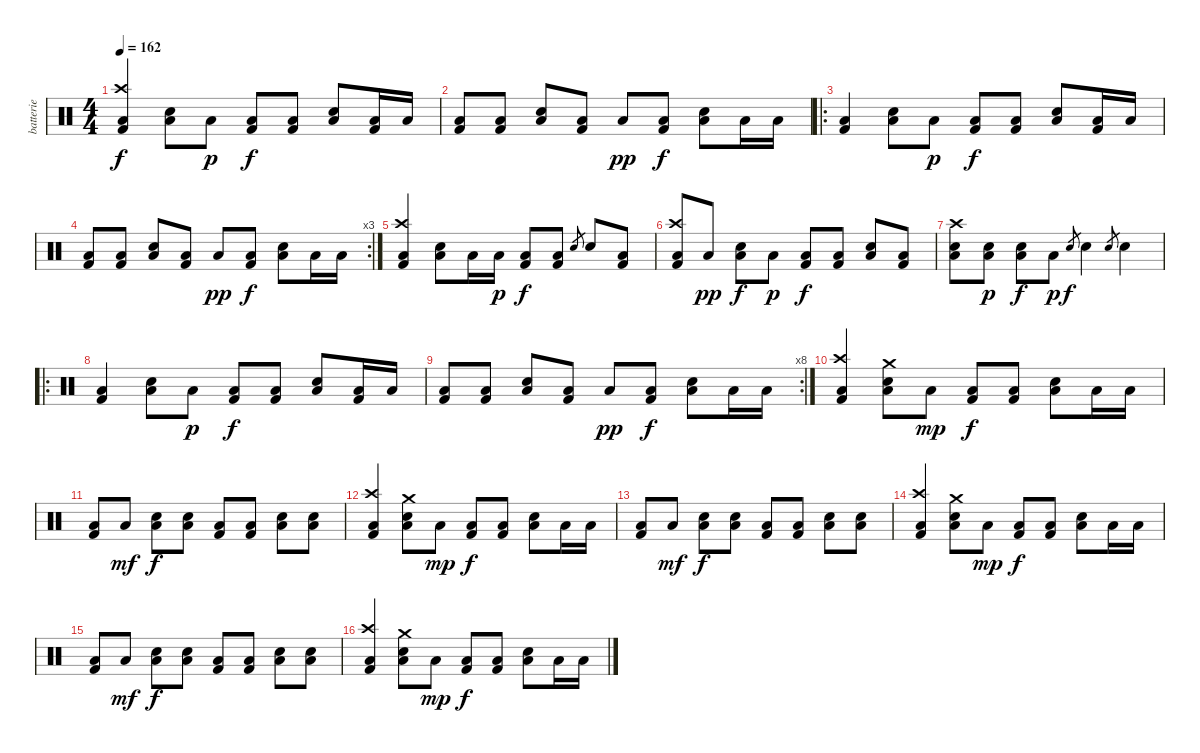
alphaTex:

\track ("batterie" "batterie") {instrument percussion}
\staff {score}
\articulation defaults
\ts (4 4)
\tempo 162
\clef neutral
\ks c
("Low Floor Tom (hit)" "Crash high (hit)" "Kick (hit) 2").4{dy f} ("Low Floor Tom (hit)" "Electric Snare (hit)").8 "Low Floor Tom (hit)".8{dy p} ("Low Floor Tom (hit)" "Kick (hit) 2").8{dy f} ("Low Floor Tom (hit)" "Kick (hit) 2").8 ("Low Floor Tom (hit)" "Electric Snare (hit)").8 ("Low Floor Tom (hit)" "Kick (hit) 2").16 "Low Floor Tom (hit)".16 |
("Low Floor Tom (hit)" "Kick (hit) 2").8 ("Low Floor Tom (hit)" "Kick (hit) 2").8 ("Low Floor Tom (hit)" "Electric Snare (hit)").8 ("Low Floor Tom (hit)" "Kick (hit) 2").8 "Low Floor Tom (hit)".8{dy pp} ("Low Floor Tom (hit)" "Kick (hit) 2").8{dy f} ("Low Floor Tom (hit)" "Electric Snare (hit)").8 "Low Floor Tom (hit)".16 "Low Floor Tom (hit)".16 |
\ro
("Low Floor Tom (hit)" "Kick (hit) 2").4 ("Low Floor Tom (hit)" "Electric Snare (hit)").8 "Low Floor Tom (hit)".8{dy p} ("Low Floor Tom (hit)" "Kick (hit) 2").8{dy f} ("Low Floor Tom (hit)" "Kick (hit) 2").8 ("Low Floor Tom (hit)" "Electric Snare (hit)").8 ("Low Floor Tom (hit)" "Kick (hit) 2").16 "Low Floor Tom (hit)".16 |
\rc 3
("Low Floor Tom (hit)" "Kick (hit) 2").8 ("Low Floor Tom (hit)" "Kick (hit) 2").8 ("Low Floor Tom (hit)" "Electric Snare (hit)").8 ("Low Floor Tom (hit)" "Kick (hit) 2").8 "Low Floor Tom (hit)".8{dy pp} ("Low Floor Tom (hit)" "Kick (hit) 2").8{dy f} ("Low Floor Tom (hit)" "Electric Snare (hit)").8 "Low Floor Tom (hit)".16 "Low Floor Tom (hit)".16 |
("Low Floor Tom (hit)" "Crash high (hit)" "Kick (hit) 2").4 ("Low Floor Tom (hit)" "Electric Snare (hit)").8 "Low Floor Tom (hit)".16 "Low Floor Tom (hit)".16{dy p} ("Low Floor Tom (hit)" "Kick (hit) 2").8{dy f} ("Low Floor Tom (hit)" "Kick (hit) 2").8 "Electric Snare (hit)".8{gr} "Electric Snare (hit)".8 ("Low Floor Tom (hit)" "Kick (hit) 2").8 |
("Low Floor Tom (hit)" "Crash high (hit)" "Kick (hit) 2").8 "Low Floor Tom (hit)".8{dy pp} ("Low Floor Tom (hit)" "Electric Snare (hit)").8{dy f} "Low Floor Tom (hit)".8{dy p} ("Low Floor Tom (hit)" "Kick (hit) 2").8{dy f} ("Low Floor Tom (hit)" "Kick (hit) 2").8 ("Low Floor Tom (hit)" "Electric Snare (hit)").8 ("Low Floor Tom (hit)" "Kick (hit) 2").8 |
("Low Floor Tom (hit)" "Crash high (hit)" "Electric Snare (hit)").8 ("Low Floor Tom (hit)" "Electric Snare (hit)").8{dy p} ("Low Floor Tom (hit)" "Electric Snare (hit)").8{dy f} "Low Floor Tom (hit)".8{dy p} "Electric Snare (hit)".8{gr dy f} "Electric Snare (hit)".4 "Electric Snare (hit)".8{gr} "Electric Snare (hit)".4 |
\ro
("Low Floor Tom (hit)" "Kick (hit) 2").4 ("Low Floor Tom (hit)" "Electric Snare (hit)").8 "Low Floor Tom (hit)".8{dy p} ("Low Floor Tom (hit)" "Kick (hit) 2").8{dy f} ("Low Floor Tom (hit)" "Kick (hit) 2").8 ("Low Floor Tom (hit)" "Electric Snare (hit)").8 ("Low Floor Tom (hit)" "Kick (hit) 2").16 "Low Floor Tom (hit)".16 |
\rc 8
("Low Floor Tom (hit)" "Kick (hit) 2").8 ("Low Floor Tom (hit)" "Kick (hit) 2").8 ("Low Floor Tom (hit)" "Electric Snare (hit)").8 ("Low Floor Tom (hit)" "Kick (hit) 2").8 "Low Floor Tom (hit)".8{dy pp} ("Low Floor Tom (hit)" "Kick (hit) 2").8{dy f} ("Low Floor Tom (hit)" "Electric Snare (hit)").8 "Low Floor Tom (hit)".16 "Low Floor Tom (hit)".16 |
("Low Floor Tom (hit)" "Crash high (hit)" "Kick (hit) 2").4 ("Low Floor Tom (hit)" "Crash medium (hit)" "Electric Snare (hit)").8 "Low Floor Tom (hit)".8{dy mp} ("Low Floor Tom (hit)" "Kick (hit) 2").8{dy f} ("Low Floor Tom (hit)" "Kick (hit) 2").8 ("Low Floor Tom (hit)" "Electric Snare (hit)").8 "Low Floor Tom (hit)".16 "Low Floor Tom (hit)".16 |
("Low Floor Tom (hit)" "Kick (hit) 2").8 "Low Floor Tom (hit)".8{dy mf} ("Low Floor Tom (hit)" "Electric Snare (hit)").8{dy f} ("Low Floor Tom (hit)" "Electric Snare (hit)").8 ("Low Floor Tom (hit)" "Kick (hit) 2").8 ("Low Floor Tom (hit)" "Kick (hit) 2").8 ("Low Floor Tom (hit)" "Electric Snare (hit)").8 ("Low Floor Tom (hit)" "Electric Snare (hit)").8 |
("Low Floor Tom (hit)" "Crash high (hit)" "Kick (hit) 2").4 ("Low Floor Tom (hit)" "Crash medium (hit)" "Electric Snare (hit)").8 "Low Floor Tom (hit)".8{dy mp} ("Low Floor Tom (hit)" "Kick (hit) 2").8{dy f} ("Low Floor Tom (hit)" "Kick (hit) 2").8 ("Low Floor Tom (hit)" "Electric Snare (hit)").8 "Low Floor Tom (hit)".16 "Low Floor Tom (hit)".16 |
("Low Floor Tom (hit)" "Kick (hit) 2").8 "Low Floor Tom (hit)".8{dy mf} ("Low Floor Tom (hit)" "Electric Snare (hit)").8{dy f} ("Low Floor Tom (hit)" "Electric Snare (hit)").8 ("Low Floor Tom (hit)" "Kick (hit) 2").8 ("Low Floor Tom (hit)" "Kick (hit) 2").8 ("Low Floor Tom (hit)" "Electric Snare (hit)").8 ("Low Floor Tom (hit)" "Electric Snare (hit)").8 |
("Low Floor Tom (hit)" "Crash high (hit)" "Kick (hit) 2").4 ("Low Floor Tom (hit)" "Crash medium (hit)" "Electric Snare (hit)").8 "Low Floor Tom (hit)".8{dy mp} ("Low Floor Tom (hit)" "Kick (hit) 2").8{dy f} ("Low Floor Tom (hit)" "Kick (hit) 2").8 ("Low Floor Tom (hit)" "Electric Snare (hit)").8 "Low Floor Tom (hit)".16 "Low Floor Tom (hit)".16 |
("Low Floor Tom (hit)" "Kick (hit) 2").8 "Low Floor Tom (hit)".8{dy mf} ("Low Floor Tom (hit)" "Electric Snare (hit)").8{dy f} ("Low Floor Tom (hit)" "Electric Snare (hit)").8 ("Low Floor Tom (hit)" "Kick (hit) 2").8 ("Low Floor Tom (hit)" "Kick (hit) 2").8 ("Low Floor Tom (hit)" "Electric Snare (hit)").8 ("Low Floor Tom (hit)" "Electric Snare (hit)").8 |
("Low Floor Tom (hit)" "Crash high (hit)" "Kick (hit) 2").4 ("Low Floor Tom (hit)" "Crash medium (hit)" "Electric Snare (hit)").8 "Low Floor Tom (hit)".8{dy mp} ("Low Floor Tom (hit)" "Kick (hit) 2").8{dy f} ("Low Floor Tom (hit)" "Kick (hit) 2").8 ("Low Floor Tom (hit)" "Electric Snare (hit)").8 "Low Floor Tom (hit)".16 "Low Floor Tom (hit)".16
